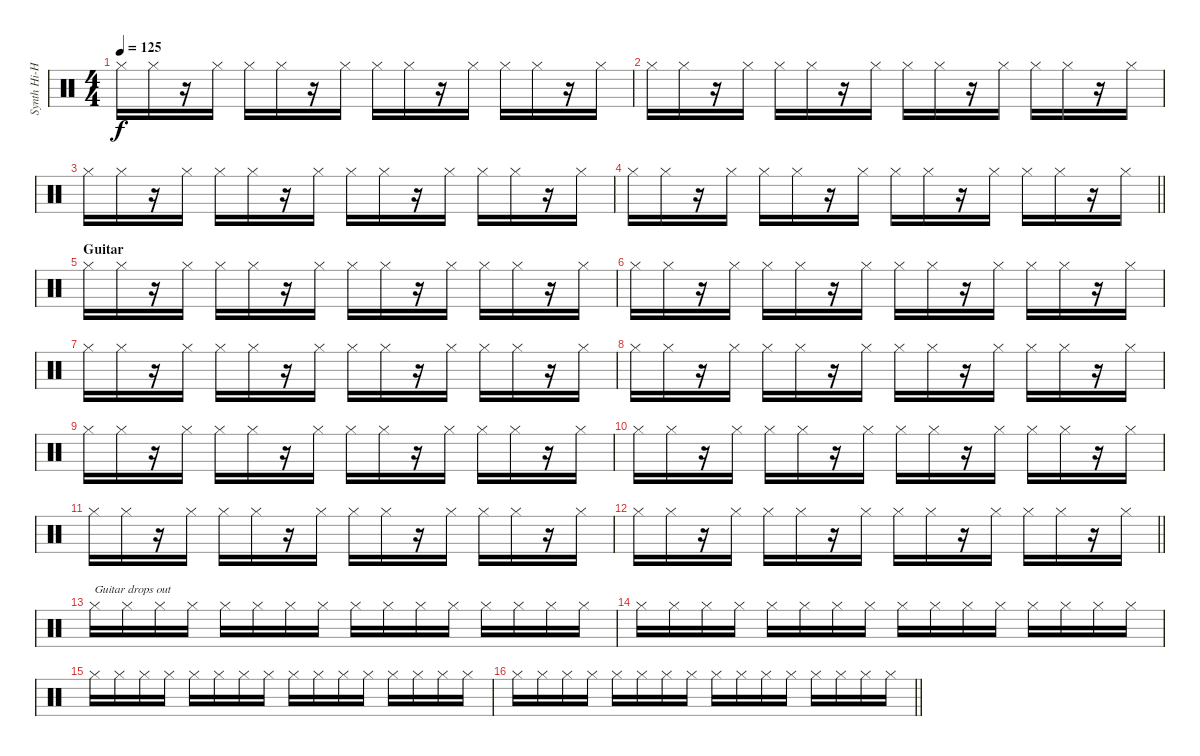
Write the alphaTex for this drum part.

\track ("Synth Hi-Hat (Gillian)" "Synth Hi-H") {instrument percussion}
\staff {score}
\articulation defaults
\ts (4 4)
\tempo 125
\clef neutral
\ks c "Hi-Hat (closed)".16{dy f} "Hi-Hat (closed)".16
r.16 "Hi-Hat (closed)".16 "Hi-Hat (closed)".16 "Hi-Hat (closed)".16 r.16 "Hi-Hat (closed)".16 "Hi-Hat (closed)".16 "Hi-Hat (closed)".16 r.16 "Hi-Hat (closed)".16 "Hi-Hat (closed)".16 "Hi-Hat (closed)".16 r.16 "Hi-Hat (closed)".16 |
"Hi-Hat (closed)".16 "Hi-Hat (closed)".16 r.16 "Hi-Hat (closed)".16 "Hi-Hat (closed)".16 "Hi-Hat (closed)".16 r.16 "Hi-Hat (closed)".16 "Hi-Hat (closed)".16 "Hi-Hat (closed)".16 r.16 "Hi-Hat (closed)".16 "Hi-Hat (closed)".16 "Hi-Hat (closed)".16 r.16 "Hi-Hat (closed)".16 |
"Hi-Hat (closed)".16 "Hi-Hat (closed)".16 r.16 "Hi-Hat (closed)".16 "Hi-Hat (closed)".16 "Hi-Hat (closed)".16 r.16 "Hi-Hat (closed)".16 "Hi-Hat (closed)".16 "Hi-Hat (closed)".16 r.16 "Hi-Hat (closed)".16 "Hi-Hat (closed)".16 "Hi-Hat (closed)".16 r.16 "Hi-Hat (closed)".16 |
\barLineRight lightlight "Hi-Hat (closed)".16 "Hi-Hat (closed)".16
r.16 "Hi-Hat (closed)".16 "Hi-Hat (closed)".16 "Hi-Hat (closed)".16 r.16 "Hi-Hat (closed)".16 "Hi-Hat (closed)".16 "Hi-Hat (closed)".16 r.16 "Hi-Hat (closed)".16 "Hi-Hat (closed)".16 "Hi-Hat (closed)".16 r.16 "Hi-Hat (closed)".16 |
\section ("" "Guitar")
"Hi-Hat (closed)".16 "Hi-Hat (closed)".16 r.16 "Hi-Hat (closed)".16 "Hi-Hat (closed)".16 "Hi-Hat (closed)".16 r.16 "Hi-Hat (closed)".16 "Hi-Hat (closed)".16 "Hi-Hat (closed)".16 r.16 "Hi-Hat (closed)".16 "Hi-Hat (closed)".16 "Hi-Hat (closed)".16 r.16 "Hi-Hat (closed)".16 |
"Hi-Hat (closed)".16 "Hi-Hat (closed)".16 r.16 "Hi-Hat (closed)".16 "Hi-Hat (closed)".16 "Hi-Hat (closed)".16 r.16 "Hi-Hat (closed)".16 "Hi-Hat (closed)".16 "Hi-Hat (closed)".16 r.16 "Hi-Hat (closed)".16 "Hi-Hat (closed)".16 "Hi-Hat (closed)".16 r.16 "Hi-Hat (closed)".16 |
"Hi-Hat (closed)".16 "Hi-Hat (closed)".16 r.16 "Hi-Hat (closed)".16 "Hi-Hat (closed)".16 "Hi-Hat (closed)".16 r.16 "Hi-Hat (closed)".16 "Hi-Hat (closed)".16 "Hi-Hat (closed)".16 r.16 "Hi-Hat (closed)".16 "Hi-Hat (closed)".16 "Hi-Hat (closed)".16 r.16 "Hi-Hat (closed)".16 |
"Hi-Hat (closed)".16 "Hi-Hat (closed)".16 r.16 "Hi-Hat (closed)".16 "Hi-Hat (closed)".16 "Hi-Hat (closed)".16 r.16 "Hi-Hat (closed)".16 "Hi-Hat (closed)".16 "Hi-Hat (closed)".16 r.16 "Hi-Hat (closed)".16 "Hi-Hat (closed)".16 "Hi-Hat (closed)".16 r.16 "Hi-Hat (closed)".16 |
"Hi-Hat (closed)".16 "Hi-Hat (closed)".16 r.16 "Hi-Hat (closed)".16 "Hi-Hat (closed)".16 "Hi-Hat (closed)".16 r.16 "Hi-Hat (closed)".16 "Hi-Hat (closed)".16 "Hi-Hat (closed)".16 r.16 "Hi-Hat (closed)".16 "Hi-Hat (closed)".16 "Hi-Hat (closed)".16 r.16 "Hi-Hat (closed)".16 |
"Hi-Hat (closed)".16 "Hi-Hat (closed)".16 r.16 "Hi-Hat (closed)".16 "Hi-Hat (closed)".16 "Hi-Hat (closed)".16 r.16 "Hi-Hat (closed)".16 "Hi-Hat (closed)".16 "Hi-Hat (closed)".16 r.16 "Hi-Hat (closed)".16 "Hi-Hat (closed)".16 "Hi-Hat (closed)".16 r.16 "Hi-Hat (closed)".16 |
"Hi-Hat (closed)".16 "Hi-Hat (closed)".16 r.16 "Hi-Hat (closed)".16 "Hi-Hat (closed)".16 "Hi-Hat (closed)".16 r.16 "Hi-Hat (closed)".16 "Hi-Hat (closed)".16 "Hi-Hat (closed)".16 r.16 "Hi-Hat (closed)".16 "Hi-Hat (closed)".16 "Hi-Hat (closed)".16 r.16 "Hi-Hat (closed)".16 |
\barLineRight lightlight "Hi-Hat (closed)".16 "Hi-Hat (closed)".16
r.16 "Hi-Hat (closed)".16 "Hi-Hat (closed)".16 "Hi-Hat (closed)".16 r.16 "Hi-Hat (closed)".16 "Hi-Hat (closed)".16 "Hi-Hat (closed)".16 r.16 "Hi-Hat (closed)".16 "Hi-Hat (closed)".16 "Hi-Hat (closed)".16 r.16 "Hi-Hat (closed)".16 |
"Hi-Hat (closed)".16{txt "Guitar drops out"} "Hi-Hat (closed)".16 "Hi-Hat (closed)".16 "Hi-Hat (closed)".16 "Hi-Hat (closed)".16 "Hi-Hat (closed)".16 "Hi-Hat (closed)".16 "Hi-Hat (closed)".16 "Hi-Hat (closed)".16 "Hi-Hat (closed)".16 "Hi-Hat (closed)".16 "Hi-Hat (closed)".16 "Hi-Hat (closed)".16 "Hi-Hat (closed)".16 "Hi-Hat (closed)".16 "Hi-Hat (closed)".16 |
"Hi-Hat (closed)".16 "Hi-Hat (closed)".16 "Hi-Hat (closed)".16 "Hi-Hat (closed)".16 "Hi-Hat (closed)".16 "Hi-Hat (closed)".16 "Hi-Hat (closed)".16 "Hi-Hat (closed)".16 "Hi-Hat (closed)".16 "Hi-Hat (closed)".16 "Hi-Hat (closed)".16 "Hi-Hat (closed)".16 "Hi-Hat (closed)".16 "Hi-Hat (closed)".16 "Hi-Hat (closed)".16 "Hi-Hat (closed)".16 |
"Hi-Hat (closed)".16 "Hi-Hat (closed)".16 "Hi-Hat (closed)".16 "Hi-Hat (closed)".16 "Hi-Hat (closed)".16 "Hi-Hat (closed)".16 "Hi-Hat (closed)".16 "Hi-Hat (closed)".16 "Hi-Hat (closed)".16 "Hi-Hat (closed)".16 "Hi-Hat (closed)".16 "Hi-Hat (closed)".16 "Hi-Hat (closed)".16 "Hi-Hat (closed)".16 "Hi-Hat (closed)".16 "Hi-Hat (closed)".16 |
\barLineRight lightlight "Hi-Hat (closed)".16 "Hi-Hat (closed)".16 "Hi-Hat (closed)".16 "Hi-Hat (closed)".16 "Hi-Hat (closed)".16 "Hi-Hat (closed)".16 "Hi-Hat (closed)".16 "Hi-Hat (closed)".16 "Hi-Hat (closed)".16 "Hi-Hat (closed)".16 "Hi-Hat (closed)".16 "Hi-Hat (closed)".16 "Hi-Hat (closed)".16 "Hi-Hat (closed)".16 "Hi-Hat (closed)".16 "Hi-Hat (closed)".16
